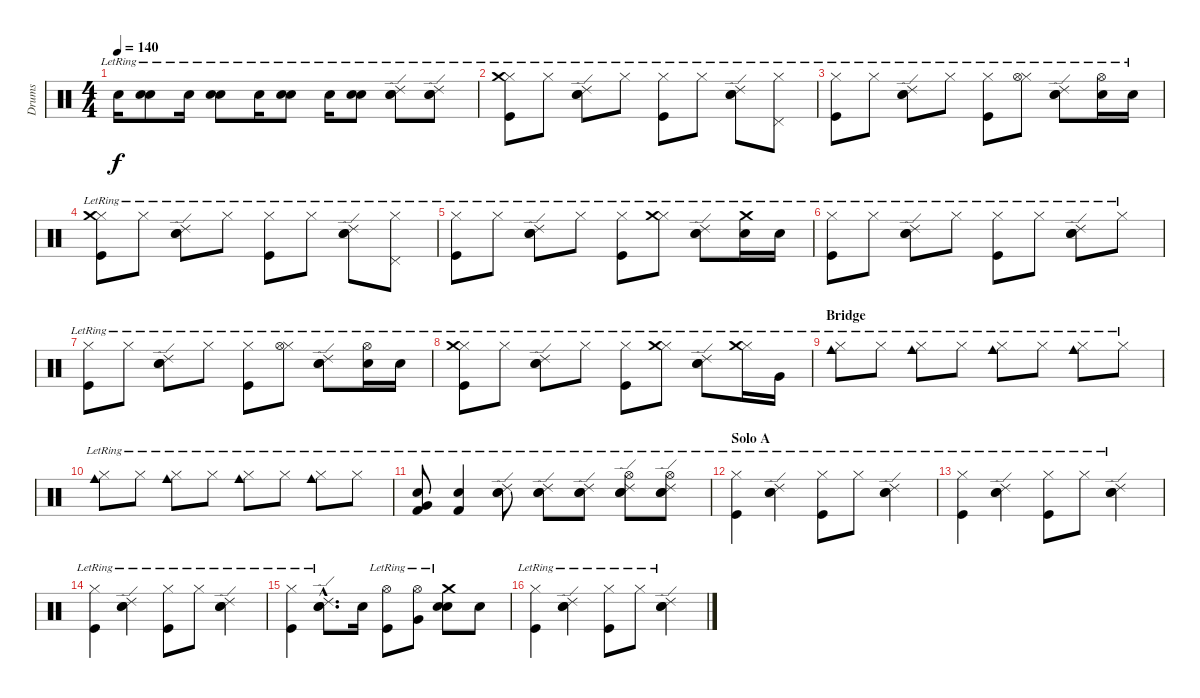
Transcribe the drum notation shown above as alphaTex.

\track ("Drums" "Drums") {instrument percussion}
\staff {score}
\articulation defaults
\ts (4 4)
\tempo 140
\clef neutral
\ks c "Snare (hit) 2"{lr}.16{dy f}
("Snare (hit) 2"{lr} "Electric Snare (hit)"{lr}).8 "Snare (hit) 2"{lr}.16 ("Snare (hit) 2"{lr} "Electric Snare (hit)"{lr}).8 "Snare (hit) 2"{lr}.16 ("Snare (hit) 2"{lr} "Electric Snare (hit)"{lr}).8 "Snare (hit) 2"{lr}.16 ("Snare (hit) 2"{lr} "Electric Snare (hit)"{lr}).8 ("Snare (hit) 2"{lr} "Electric Snare (hit)"{lr} "Ride (edge) 2"{lr}).8 ("Snare (hit) 2"{lr} "Electric Snare (hit)"{lr} "Ride (edge) 2"{lr}).8 |
("Hi-Hat (closed)"{lr} "Crash medium (hit)"{lr} "Kick (hit)"{lr}).8 "Hi-Hat (closed)"{lr}.8 ("Electric Snare (hit)"{lr} "Ride (edge) 2"{lr} "Snare (hit) 2"{lr}).8 "Hi-Hat (closed)"{lr}.8 ("Hi-Hat (closed)"{lr} "Kick (hit)"{lr}).8 "Hi-Hat (closed)"{lr}.8 ("Electric Snare (hit)"{lr} "Ride (edge) 2"{lr} "Snare (hit) 2"{lr}).8 ("Hi-Hat (closed)"{lr} "Pedal Hi-Hat (hit)"{lr}).8 |
("Hi-Hat (closed)"{lr} "Kick (hit)"{lr}).8 "Hi-Hat (closed)"{lr}.8 ("Electric Snare (hit)"{lr} "Ride (edge) 2"{lr} "Snare (hit) 2"{lr}).8 "Hi-Hat (closed)"{lr}.8 ("Hi-Hat (closed)"{lr} "Kick (hit)"{lr}).8 ("Hi-Hat (closed)"{lr} "Hi-Hat (open)"{lr}).8 ("Electric Snare (hit)"{lr} "Ride (edge) 2"{lr} "Snare (hit) 2"{lr}).8 ("Hi-Hat (open)"{lr} "Snare (hit) 2"{lr}).16 "Snare (hit) 2"{lr}.16 |
("Hi-Hat (closed)"{lr} "Crash medium (hit)"{lr} "Kick (hit)"{lr}).8 "Hi-Hat (closed)"{lr}.8 ("Electric Snare (hit)"{lr} "Ride (edge) 2"{lr} "Snare (hit) 2"{lr}).8 "Hi-Hat (closed)"{lr}.8 ("Hi-Hat (closed)"{lr} "Kick (hit)"{lr}).8 "Hi-Hat (closed)"{lr}.8 ("Electric Snare (hit)"{lr} "Ride (edge) 2"{lr} "Snare (hit) 2"{lr}).8 ("Hi-Hat (closed)"{lr} "Pedal Hi-Hat (hit)"{lr}).8 |
("Hi-Hat (closed)"{lr} "Kick (hit)"{lr}).8 "Hi-Hat (closed)"{lr}.8 ("Electric Snare (hit)"{lr} "Ride (edge) 2"{lr} "Snare (hit) 2"{lr}).8 "Hi-Hat (closed)"{lr}.8 ("Hi-Hat (closed)"{lr} "Kick (hit)"{lr}).8 ("Hi-Hat (closed)"{lr} "Crash medium (hit)"{lr}).8 ("Electric Snare (hit)"{lr} "Ride (edge) 2"{lr} "Snare (hit) 2"{lr}).8 ("Crash medium (hit)"{lr} "Snare (hit) 2"{lr}).16 "Snare (hit) 2"{lr}.16 |
("Hi-Hat (closed)"{lr} "Kick (hit)"{lr}).8 "Hi-Hat (closed)"{lr}.8 ("Electric Snare (hit)"{lr} "Ride (edge) 2"{lr} "Snare (hit) 2"{lr}).8 "Hi-Hat (closed)"{lr}.8 ("Hi-Hat (closed)"{lr} "Kick (hit)"{lr}).8 "Hi-Hat (closed)"{lr}.8 ("Electric Snare (hit)"{lr} "Ride (edge) 2"{lr} "Snare (hit) 2"{lr}).8 "Hi-Hat (closed)"{lr}.8 |
("Hi-Hat (closed)"{lr} "Kick (hit)"{lr}).8 "Hi-Hat (closed)"{lr}.8 ("Electric Snare (hit)"{lr} "Ride (edge) 2"{lr} "Snare (hit) 2"{lr}).8 "Hi-Hat (closed)"{lr}.8 ("Hi-Hat (closed)"{lr} "Kick (hit)"{lr}).8 ("Hi-Hat (closed)"{lr} "Hi-Hat (open)"{lr}).8 ("Electric Snare (hit)"{lr} "Ride (edge) 2"{lr} "Snare (hit) 2"{lr}).8 ("Hi-Hat (open)"{lr} "Snare (hit) 2"{lr}).16 "Snare (hit) 2"{lr}.16 |
("Hi-Hat (closed)"{lr} "Crash medium (hit)"{lr} "Kick (hit)"{lr}).8 "Hi-Hat (closed)"{lr}.8 ("Electric Snare (hit)"{lr} "Ride (edge) 2"{lr} "Snare (hit) 2"{lr}).8 "Hi-Hat (closed)"{lr}.8 ("Hi-Hat (closed)"{lr} "Kick (hit)"{lr}).8 ("Hi-Hat (closed)"{lr} "Crash medium (hit)"{lr}).8 ("Electric Snare (hit)"{lr} "Ride (edge) 2"{lr} "Snare (hit) 2"{lr}).8 ("Hi-Hat (closed)"{lr} "Crash medium (hit)"{lr}).16 "Very Low Tom (hit)"{lr}.16 |
\section ("" "Bridge")
("Hi-Hat (closed)"{lr} "Cowbell medium (hit)"{lr}).8 "Hi-Hat (closed)"{lr}.8 ("Hi-Hat (closed)"{lr} "Cowbell medium (hit)"{lr}).8 "Hi-Hat (closed)"{lr}.8 ("Hi-Hat (closed)"{lr} "Cowbell medium (hit)"{lr}).8 "Hi-Hat (closed)"{lr}.8 ("Hi-Hat (closed)"{lr} "Cowbell medium (hit)"{lr}).8 "Hi-Hat (closed)"{lr}.8 |
("Hi-Hat (closed)"{lr} "Cowbell medium (hit)"{lr}).8 "Hi-Hat (closed)"{lr}.8 ("Hi-Hat (closed)"{lr} "Cowbell medium (hit)"{lr}).8 "Hi-Hat (closed)"{lr}.8 ("Hi-Hat (closed)"{lr} "Cowbell medium (hit)"{lr}).8 "Hi-Hat (closed)"{lr}.8 ("Hi-Hat (closed)"{lr} "Cowbell medium (hit)"{lr}).8 "Hi-Hat (closed)"{lr}.8 |
("Kick (hit) 2"{lr} "Very Low Tom (hit)"{lr} "Electric Snare (hit)"{lr}).8 ("Kick (hit) 2"{lr} "Electric Snare (hit)"{lr}).4 ("Snare (hit) 2"{lr} "Electric Snare (hit)"{lr} "Ride (edge) 2"{lr}).8 ("Snare (hit) 2"{lr} "Electric Snare (hit)"{lr} "Ride (edge) 2"{lr}).8 ("Snare (hit) 2"{lr} "Electric Snare (hit)"{lr} "Ride (edge) 2"{lr}).8 ("Snare (hit) 2"{lr} "Electric Snare (hit)"{lr} "Ride (edge) 2"{lr} "Hi-Hat (open)"{lr}).8 ("Snare (hit) 2"{lr} "Electric Snare (hit)"{lr} "Ride (edge) 2"{lr} "Hi-Hat (open)"{lr}).8 |
\section ("" "Solo A")
("Hi-Hat (closed)"{lr} "Kick (hit)"{lr}).4 ("Electric Snare (hit)"{lr} "Ride (edge) 2"{lr} "Snare (hit) 2"{lr}).4 ("Hi-Hat (closed)"{lr} "Kick (hit)"{lr}).8 "Hi-Hat (closed)"{lr}.8 ("Electric Snare (hit)"{lr} "Ride (edge) 2"{lr} "Snare (hit) 2"{lr}).4 |
("Hi-Hat (closed)"{lr} "Kick (hit)"{lr}).4 ("Electric Snare (hit)"{lr} "Ride (edge) 2"{lr} "Snare (hit) 2"{lr}).4 ("Hi-Hat (closed)"{lr} "Kick (hit)"{lr}).8 "Hi-Hat (closed)"{lr}.8 ("Electric Snare (hit)"{lr} "Ride (edge) 2"{lr} "Snare (hit) 2"{lr}).4 |
("Hi-Hat (closed)"{lr} "Kick (hit)"{lr}).4 ("Electric Snare (hit)"{lr} "Ride (edge) 2"{lr} "Snare (hit) 2"{lr}).4 ("Hi-Hat (closed)"{lr} "Kick (hit)"{lr}).8 "Hi-Hat (closed)"{lr}.8 ("Electric Snare (hit)"{lr} "Ride (edge) 2"{lr} "Snare (hit) 2"{lr}).4 |
("Hi-Hat (closed)"{lr} "Kick (hit)"{lr}).4 ("Electric Snare (hit)"{hac lr} "Ride (edge) 2"{hac lr} "Snare (hit) 2"{hac lr}).8{d} "Snare (hit) 2".16 ("Hi-Hat (open)"{lr} "Kick (hit)"{lr}).8 ("Hi-Hat (open)"{lr} "Very Low Tom (hit)"{lr}).8 ("Electric Snare (hit)"{lr} "Crash medium (hit)"{lr} "Snare (hit) 2"{lr}).8 "Snare (hit) 2".8 |
("Hi-Hat (closed)"{lr} "Kick (hit)"{lr}).4 ("Electric Snare (hit)"{lr} "Ride (edge) 2"{lr} "Snare (hit) 2"{lr}).4 ("Hi-Hat (closed)"{lr} "Kick (hit)"{lr}).8 "Hi-Hat (closed)"{lr}.8 ("Electric Snare (hit)"{lr} "Ride (edge) 2"{lr} "Snare (hit) 2"{lr}).4
